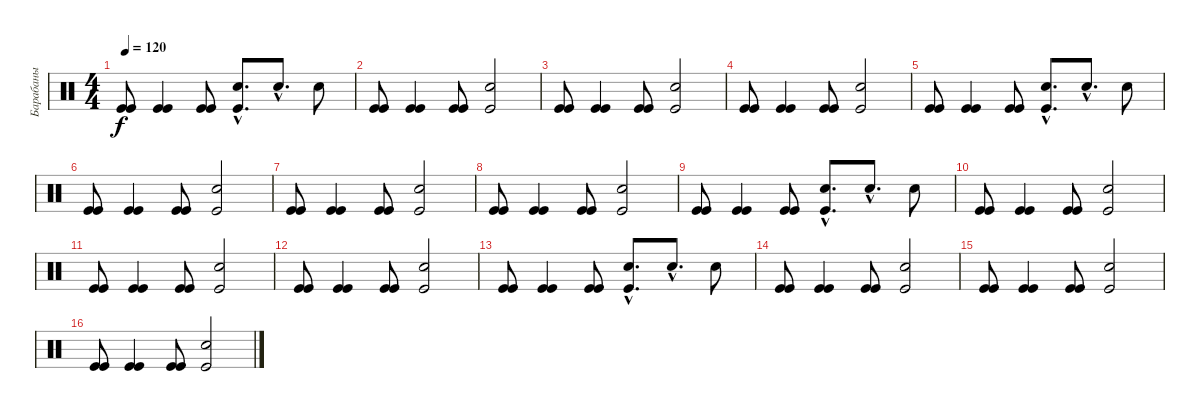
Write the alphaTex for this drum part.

\track ("Барабаны" "Барабаны") {instrument percussion}
\staff {score}
\articulation defaults
\ts (4 4)
\tempo 120
\clef neutral
\ks c
("Kick (hit)" "Kick (hit)").8{dy f} ("Kick (hit)" "Kick (hit)").4 ("Kick (hit)" "Kick (hit)").8 ("Kick (hit)"{hac} "Snare (hit) 2"{hac}).8{d} "Snare (hit) 2"{hac}.8{d volume 9} "Snare (hit) 2".8{volume 6} |
("Kick (hit)" "Kick (hit)").8{volume 13} ("Kick (hit)" "Kick (hit)").4 ("Kick (hit)" "Kick (hit)").8 ("Kick (hit)" "Snare (hit) 2").2 |
("Kick (hit)" "Kick (hit)").8 ("Kick (hit)" "Kick (hit)").4 ("Kick (hit)" "Kick (hit)").8 ("Kick (hit)" "Snare (hit) 2").2 |
("Kick (hit)" "Kick (hit)").8 ("Kick (hit)" "Kick (hit)").4 ("Kick (hit)" "Kick (hit)").8 ("Kick (hit)" "Snare (hit) 2").2 |
("Kick (hit)" "Kick (hit)").8 ("Kick (hit)" "Kick (hit)").4 ("Kick (hit)" "Kick (hit)").8 ("Kick (hit)"{hac} "Snare (hit) 2"{hac}).8{d} "Snare (hit) 2"{hac}.8{d volume 9} "Snare (hit) 2".8{volume 6} |
("Kick (hit)" "Kick (hit)").8{volume 13} ("Kick (hit)" "Kick (hit)").4 ("Kick (hit)" "Kick (hit)").8 ("Kick (hit)" "Snare (hit) 2").2 |
("Kick (hit)" "Kick (hit)").8 ("Kick (hit)" "Kick (hit)").4 ("Kick (hit)" "Kick (hit)").8 ("Kick (hit)" "Snare (hit) 2").2 |
("Kick (hit)" "Kick (hit)").8 ("Kick (hit)" "Kick (hit)").4 ("Kick (hit)" "Kick (hit)").8 ("Kick (hit)" "Snare (hit) 2").2 |
("Kick (hit)" "Kick (hit)").8 ("Kick (hit)" "Kick (hit)").4 ("Kick (hit)" "Kick (hit)").8 ("Kick (hit)"{hac} "Snare (hit) 2"{hac}).8{d} "Snare (hit) 2"{hac}.8{d volume 9} "Snare (hit) 2".8{volume 6} |
("Kick (hit)" "Kick (hit)").8{volume 13} ("Kick (hit)" "Kick (hit)").4 ("Kick (hit)" "Kick (hit)").8 ("Kick (hit)" "Snare (hit) 2").2 |
("Kick (hit)" "Kick (hit)").8 ("Kick (hit)" "Kick (hit)").4 ("Kick (hit)" "Kick (hit)").8 ("Kick (hit)" "Snare (hit) 2").2 |
("Kick (hit)" "Kick (hit)").8 ("Kick (hit)" "Kick (hit)").4 ("Kick (hit)" "Kick (hit)").8 ("Kick (hit)" "Snare (hit) 2").2 |
("Kick (hit)" "Kick (hit)").8 ("Kick (hit)" "Kick (hit)").4 ("Kick (hit)" "Kick (hit)").8 ("Kick (hit)"{hac} "Snare (hit) 2"{hac}).8{d} "Snare (hit) 2"{hac}.8{d volume 9} "Snare (hit) 2".8{volume 6} |
("Kick (hit)" "Kick (hit)").8{volume 13} ("Kick (hit)" "Kick (hit)").4 ("Kick (hit)" "Kick (hit)").8 ("Kick (hit)" "Snare (hit) 2").2 |
("Kick (hit)" "Kick (hit)").8 ("Kick (hit)" "Kick (hit)").4 ("Kick (hit)" "Kick (hit)").8 ("Kick (hit)" "Snare (hit) 2").2 |
("Kick (hit)" "Kick (hit)").8 ("Kick (hit)" "Kick (hit)").4 ("Kick (hit)" "Kick (hit)").8 ("Kick (hit)" "Snare (hit) 2").2
